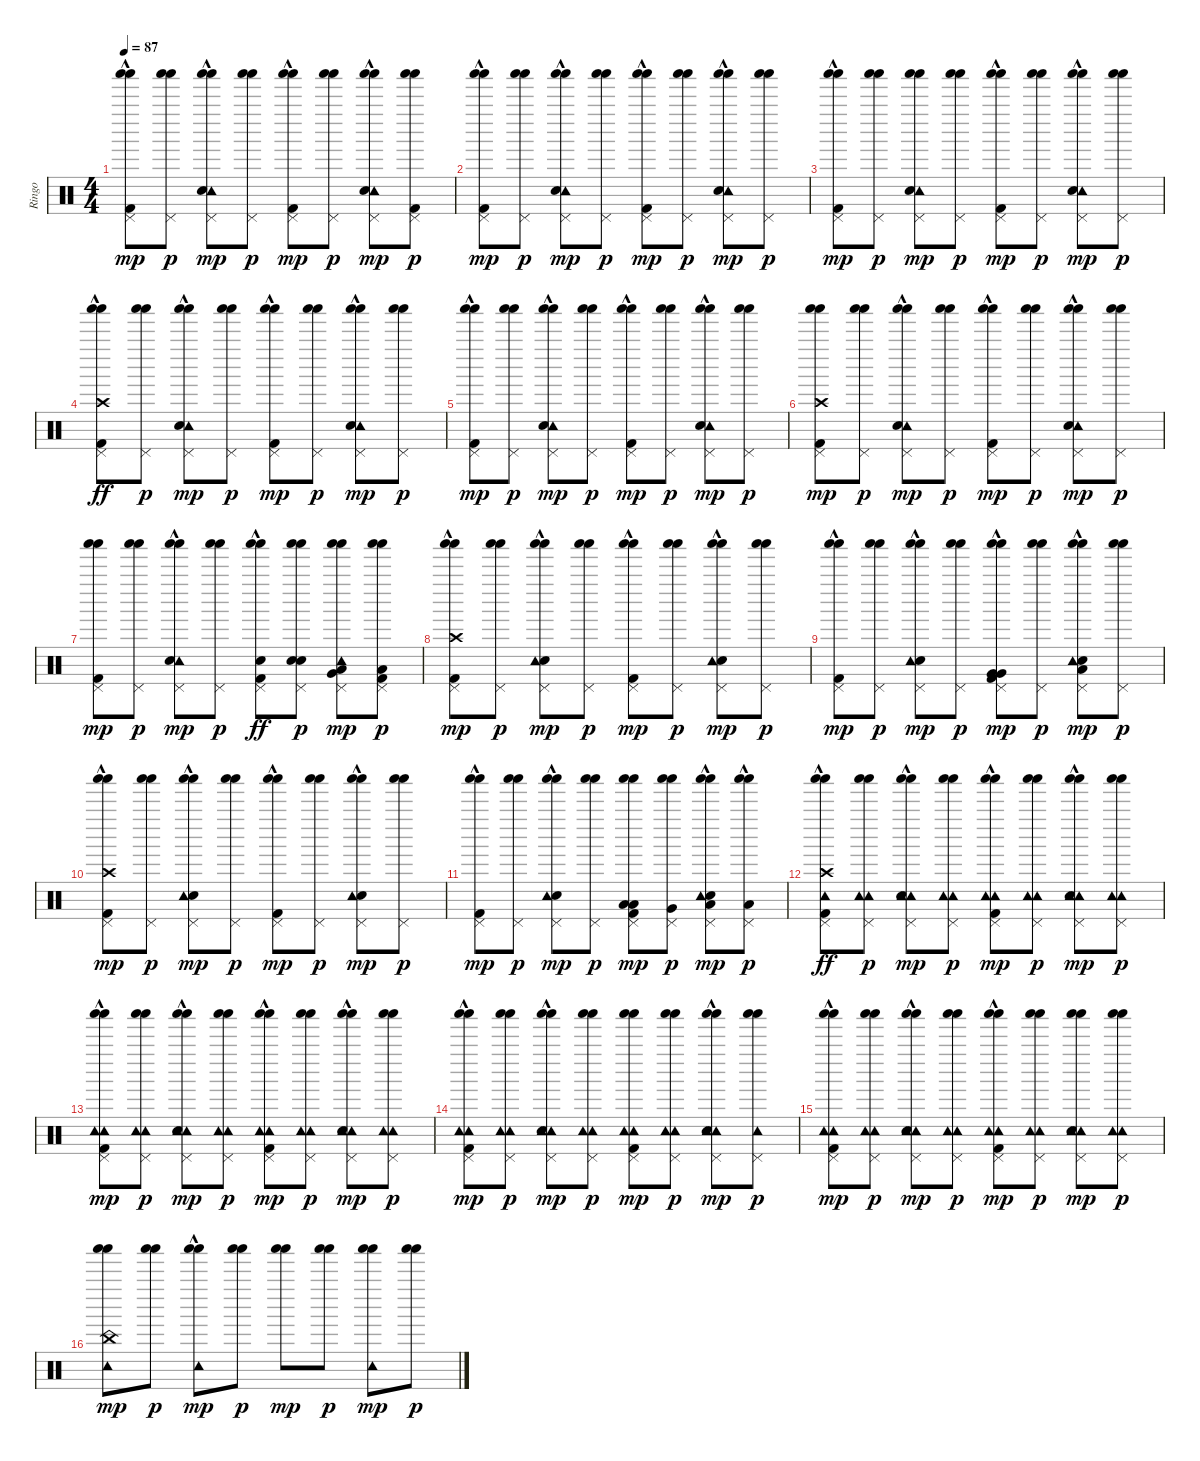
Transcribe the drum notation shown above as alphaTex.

\track ("Ringo" "Ringo") {instrument percussion}
\staff {score}
\articulation defaults
\ts (4 4)
\tempo 87
\clef neutral
\ks c
("Shaker (hit)" "Pedal Hi-Hat (hit)" "Kick (hit) 2"{hac} "Shaker (hit)").8{dy mp} ("Shaker (hit)" "Pedal Hi-Hat (hit)" "Shaker (hit)").8{dy p} ("Shaker (hit)" "Tambourine (hit)" "Pedal Hi-Hat (hit)" "Snare (hit) 2"{hac} "Shaker (hit)").8{dy mp} ("Shaker (hit)" "Pedal Hi-Hat (hit)" "Shaker (hit)").8{dy p} ("Shaker (hit)" "Pedal Hi-Hat (hit)" "Kick (hit) 2"{hac} "Shaker (hit)").8{dy mp} ("Shaker (hit)" "Pedal Hi-Hat (hit)" "Shaker (hit)").8{dy p} ("Shaker (hit)" "Tambourine (hit)" "Pedal Hi-Hat (hit)" "Snare (hit) 2"{hac} "Shaker (hit)").8{dy mp} ("Shaker (hit)" "Pedal Hi-Hat (hit)" "Kick (hit) 2" "Shaker (hit)").8{dy p} |
("Shaker (hit)" "Pedal Hi-Hat (hit)" "Kick (hit) 2"{hac} "Shaker (hit)").8{dy mp} ("Shaker (hit)" "Pedal Hi-Hat (hit)" "Shaker (hit)").8{dy p} ("Shaker (hit)" "Tambourine (hit)" "Pedal Hi-Hat (hit)" "Snare (hit) 2"{hac} "Shaker (hit)").8{dy mp} ("Shaker (hit)" "Pedal Hi-Hat (hit)" "Shaker (hit)").8{dy p} ("Shaker (hit)" "Pedal Hi-Hat (hit)" "Kick (hit) 2"{hac} "Shaker (hit)").8{dy mp} ("Shaker (hit)" "Pedal Hi-Hat (hit)" "Shaker (hit)").8{dy p} ("Shaker (hit)" "Tambourine (hit)" "Pedal Hi-Hat (hit)" "Snare (hit) 2"{hac} "Shaker (hit)").8{dy mp} ("Shaker (hit)" "Pedal Hi-Hat (hit)" "Shaker (hit)").8{dy p} |
("Shaker (hit)" "Pedal Hi-Hat (hit)" "Kick (hit) 2"{hac} "Shaker (hit)").8{dy mp} ("Shaker (hit)" "Pedal Hi-Hat (hit)" "Shaker (hit)").8{dy p} ("Shaker (hit)" "Tambourine (hit)" "Pedal Hi-Hat (hit)" "Snare (hit) 2" "Shaker (hit)").8{dy mp} ("Shaker (hit)" "Pedal Hi-Hat (hit)" "Shaker (hit)").8{dy p} ("Shaker (hit)" "Pedal Hi-Hat (hit)" "Kick (hit) 2"{hac} "Shaker (hit)").8{dy mp} ("Shaker (hit)" "Pedal Hi-Hat (hit)" "Shaker (hit)").8{dy p} ("Shaker (hit)" "Tambourine (hit)" "Pedal Hi-Hat (hit)" "Snare (hit) 2"{hac} "Shaker (hit)").8{dy mp} ("Shaker (hit)" "Pedal Hi-Hat (hit)" "Shaker (hit)").8{dy p} |
("Shaker (hit)" "Pedal Hi-Hat (hit)" "Kick (hit) 2"{hac} "Shaker (hit)" "Crash high (hit)").8{dy ff} ("Shaker (hit)" "Pedal Hi-Hat (hit)" "Shaker (hit)").8{dy p} ("Shaker (hit)" "Tambourine (hit)"{hac} "Pedal Hi-Hat (hit)" "Snare (hit) 2"{hac} "Shaker (hit)").8{dy mp} ("Shaker (hit)" "Pedal Hi-Hat (hit)" "Shaker (hit)").8{dy p} ("Shaker (hit)" "Pedal Hi-Hat (hit)" "Kick (hit) 2"{hac} "Shaker (hit)").8{dy mp} ("Shaker (hit)" "Pedal Hi-Hat (hit)" "Shaker (hit)").8{dy p} ("Shaker (hit)" "Tambourine (hit)" "Pedal Hi-Hat (hit)" "Snare (hit) 2"{hac} "Shaker (hit)").8{dy mp} ("Shaker (hit)" "Pedal Hi-Hat (hit)" "Shaker (hit)").8{dy p} |
("Shaker (hit)" "Pedal Hi-Hat (hit)" "Kick (hit) 2"{hac} "Shaker (hit)").8{dy mp} ("Shaker (hit)" "Pedal Hi-Hat (hit)" "Shaker (hit)").8{dy p} ("Shaker (hit)" "Tambourine (hit)" "Pedal Hi-Hat (hit)" "Snare (hit) 2"{hac} "Shaker (hit)").8{dy mp} ("Shaker (hit)" "Pedal Hi-Hat (hit)" "Shaker (hit)").8{dy p} ("Shaker (hit)" "Pedal Hi-Hat (hit)" "Kick (hit) 2"{hac} "Shaker (hit)").8{dy mp} ("Shaker (hit)" "Pedal Hi-Hat (hit)" "Shaker (hit)").8{dy p} ("Shaker (hit)" "Tambourine (hit)" "Pedal Hi-Hat (hit)" "Snare (hit) 2"{hac} "Shaker (hit)").8{dy mp} ("Shaker (hit)" "Pedal Hi-Hat (hit)" "Shaker (hit)").8{dy p} |
("Shaker (hit)" "Crash high (hit)" "Pedal Hi-Hat (hit)" "Kick (hit) 2" "Shaker (hit)").8{dy mp} ("Shaker (hit)" "Pedal Hi-Hat (hit)" "Shaker (hit)").8{dy p} ("Shaker (hit)" "Tambourine (hit)" "Pedal Hi-Hat (hit)" "Snare (hit) 2"{hac} "Shaker (hit)").8{dy mp} ("Shaker (hit)" "Pedal Hi-Hat (hit)" "Shaker (hit)").8{dy p} ("Shaker (hit)" "Pedal Hi-Hat (hit)" "Kick (hit) 2"{hac} "Shaker (hit)").8{dy mp} ("Shaker (hit)" "Pedal Hi-Hat (hit)" "Shaker (hit)").8{dy p} ("Shaker (hit)" "Tambourine (hit)" "Pedal Hi-Hat (hit)" "Snare (hit) 2"{hac} "Shaker (hit)").8{dy mp} ("Shaker (hit)" "Pedal Hi-Hat (hit)" "Shaker (hit)").8{dy p} |
("Shaker (hit)" "Pedal Hi-Hat (hit)" "Kick (hit) 2" "Shaker (hit)").8{dy mp} ("Shaker (hit)" "Pedal Hi-Hat (hit)" "Shaker (hit)").8{dy p} ("Shaker (hit)" "Tambourine (hit)" "Pedal Hi-Hat (hit)" "Snare (hit) 2"{hac} "Shaker (hit)").8{dy mp} ("Shaker (hit)" "Pedal Hi-Hat (hit)" "Shaker (hit)").8{dy p} ("Shaker (hit)" "Pedal Hi-Hat (hit)" "Kick (hit) 2"{hac} "Shaker (hit)" "Snare (hit) 2").8{dy ff} ("Shaker (hit)" "Snare (hit) 2" "Snare (hit) 2" "Pedal Hi-Hat (hit)" "Shaker (hit)").8{dy p} ("Shaker (hit)" "Low Tom (hit)" "Tambourine (hit)" "Pedal Hi-Hat (hit)" "Shaker (hit)" "Very Low Tom (hit)").8{dy mp} ("Shaker (hit)" "Low Floor Tom (hit)" "Kick (hit) 2" "Pedal Hi-Hat (hit)" "Shaker (hit)").8{dy p} |
("Shaker (hit)" "Crash high (hit)" "Kick (hit) 2"{hac} "Pedal Hi-Hat (hit)" "Shaker (hit)").8{dy mp} ("Shaker (hit)" "Pedal Hi-Hat (hit)" "Shaker (hit)").8{dy p} ("Shaker (hit)" "Snare (hit) 2"{hac} "Pedal Hi-Hat (hit)" "Tambourine (hit)" "Shaker (hit)").8{dy mp} ("Shaker (hit)" "Pedal Hi-Hat (hit)" "Shaker (hit)").8{dy p} ("Shaker (hit)" "Kick (hit) 2"{hac} "Pedal Hi-Hat (hit)" "Shaker (hit)").8{dy mp} ("Shaker (hit)" "Pedal Hi-Hat (hit)" "Shaker (hit)").8{dy p} ("Shaker (hit)" "Snare (hit) 2"{hac} "Pedal Hi-Hat (hit)" "Tambourine (hit)" "Shaker (hit)").8{dy mp} ("Shaker (hit)" "Pedal Hi-Hat (hit)" "Shaker (hit)").8{dy p} |
("Shaker (hit)" "Kick (hit) 2"{hac} "Pedal Hi-Hat (hit)" "Shaker (hit)").8{dy mp} ("Shaker (hit)" "Pedal Hi-Hat (hit)" "Shaker (hit)").8{dy p} ("Shaker (hit)" "Snare (hit) 2"{hac} "Pedal Hi-Hat (hit)" "Tambourine (hit)"{hac} "Shaker (hit)").8{dy mp} ("Shaker (hit)" "Pedal Hi-Hat (hit)" "Shaker (hit)").8{dy p} ("Shaker (hit)" "Very Low Tom (hit)" "Kick (hit) 2"{hac} "Pedal Hi-Hat (hit)" "Shaker (hit)" "Very Low Tom (hit)").8{dy mp} ("Shaker (hit)" "Pedal Hi-Hat (hit)" "Shaker (hit)").8{dy p} ("Shaker (hit)" "Low Floor Tom (hit)" "Snare (hit) 2"{hac} "Pedal Hi-Hat (hit)" "Tambourine (hit)"{hac} "Shaker (hit)").8{dy mp} ("Shaker (hit)" "Pedal Hi-Hat (hit)" "Shaker (hit)").8{dy p} |
("Shaker (hit)" "Crash high (hit)"{hac} "Kick (hit) 2"{hac} "Pedal Hi-Hat (hit)" "Shaker (hit)").8{dy mp} ("Shaker (hit)" "Pedal Hi-Hat (hit)" "Shaker (hit)").8{dy p} ("Shaker (hit)" "Snare (hit) 2"{hac} "Pedal Hi-Hat (hit)" "Tambourine (hit)" "Shaker (hit)").8{dy mp} ("Shaker (hit)" "Pedal Hi-Hat (hit)" "Shaker (hit)").8{dy p} ("Shaker (hit)" "Kick (hit) 2"{hac} "Pedal Hi-Hat (hit)" "Shaker (hit)").8{dy mp} ("Shaker (hit)" "Pedal Hi-Hat (hit)" "Shaker (hit)").8{dy p} ("Shaker (hit)" "Snare (hit) 2"{hac} "Pedal Hi-Hat (hit)" "Tambourine (hit)" "Shaker (hit)").8{dy mp} ("Shaker (hit)" "Pedal Hi-Hat (hit)" "Shaker (hit)").8{dy p} |
("Shaker (hit)" "Kick (hit) 2"{hac} "Pedal Hi-Hat (hit)" "Shaker (hit)").8{dy mp} ("Shaker (hit)" "Pedal Hi-Hat (hit)" "Shaker (hit)").8{dy p} ("Shaker (hit)" "Snare (hit) 2"{hac} "Pedal Hi-Hat (hit)" "Tambourine (hit)" "Shaker (hit)").8{dy mp} ("Shaker (hit)" "Pedal Hi-Hat (hit)" "Shaker (hit)").8{dy p} ("Shaker (hit)" "Low Tom (hit)" "Kick (hit) 2" "Pedal Hi-Hat (hit)" "Shaker (hit)" "Low Tom (hit)").8{dy mp} ("Shaker (hit)" "Pedal Hi-Hat (hit)" "Shaker (hit)" "Very Low Tom (hit)").8{dy p} ("Shaker (hit)" "Low Tom (hit)" "Snare (hit) 2"{hac} "Pedal Hi-Hat (hit)" "Tambourine (hit)"{hac} "Shaker (hit)").8{dy mp} ("Shaker (hit)" "Low Floor Tom (hit)"{hac} "Pedal Hi-Hat (hit)" "Shaker (hit)").8{dy p} |
("Shaker (hit)" "Kick (hit) 2"{hac} "Pedal Hi-Hat (hit)" "Tambourine (hit)" "Shaker (hit)" "Crash high (hit)").8{dy ff} ("Shaker (hit)" "Tambourine (hit)" "Pedal Hi-Hat (hit)" "Tambourine (hit)" "Shaker (hit)").8{dy p} ("Shaker (hit)" "Tambourine (hit)" "Tambourine (hit)" "Snare (hit) 2"{hac} "Pedal Hi-Hat (hit)" "Shaker (hit)").8{dy mp} ("Shaker (hit)" "Tambourine (hit)" "Pedal Hi-Hat (hit)" "Tambourine (hit)" "Shaker (hit)").8{dy p} ("Shaker (hit)" "Tambourine (hit)" "Kick (hit) 2"{hac} "Pedal Hi-Hat (hit)" "Tambourine (hit)" "Shaker (hit)").8{dy mp} ("Shaker (hit)" "Tambourine (hit)" "Pedal Hi-Hat (hit)" "Tambourine (hit)" "Shaker (hit)").8{dy p} ("Shaker (hit)" "Tambourine (hit)" "Tambourine (hit)" "Snare (hit) 2"{hac} "Pedal Hi-Hat (hit)" "Shaker (hit)").8{dy mp} ("Shaker (hit)" "Tambourine (hit)" "Pedal Hi-Hat (hit)" "Tambourine (hit)" "Shaker (hit)").8{dy p} |
("Shaker (hit)" "Tambourine (hit)" "Kick (hit) 2"{hac} "Pedal Hi-Hat (hit)" "Tambourine (hit)" "Shaker (hit)").8{dy mp} ("Shaker (hit)" "Tambourine (hit)" "Pedal Hi-Hat (hit)" "Tambourine (hit)" "Shaker (hit)").8{dy p} ("Shaker (hit)" "Tambourine (hit)" "Tambourine (hit)" "Snare (hit) 2"{hac} "Pedal Hi-Hat (hit)" "Shaker (hit)").8{dy mp} ("Shaker (hit)" "Tambourine (hit)" "Pedal Hi-Hat (hit)" "Tambourine (hit)" "Shaker (hit)").8{dy p} ("Shaker (hit)" "Tambourine (hit)" "Kick (hit) 2"{hac} "Pedal Hi-Hat (hit)" "Tambourine (hit)" "Shaker (hit)").8{dy mp} ("Shaker (hit)" "Tambourine (hit)" "Pedal Hi-Hat (hit)" "Tambourine (hit)" "Shaker (hit)").8{dy p} ("Shaker (hit)" "Tambourine (hit)" "Tambourine (hit)" "Snare (hit) 2"{hac} "Pedal Hi-Hat (hit)" "Shaker (hit)").8{dy mp} ("Shaker (hit)" "Tambourine (hit)" "Pedal Hi-Hat (hit)" "Tambourine (hit)" "Shaker (hit)").8{dy p} |
("Shaker (hit)" "Tambourine (hit)" "Kick (hit) 2"{hac} "Pedal Hi-Hat (hit)" "Tambourine (hit)" "Shaker (hit)").8{dy mp} ("Shaker (hit)" "Tambourine (hit)" "Pedal Hi-Hat (hit)" "Tambourine (hit)" "Shaker (hit)").8{dy p} ("Shaker (hit)" "Tambourine (hit)" "Tambourine (hit)" "Snare (hit) 2"{hac} "Pedal Hi-Hat (hit)" "Shaker (hit)").8{dy mp} ("Shaker (hit)" "Tambourine (hit)" "Pedal Hi-Hat (hit)" "Tambourine (hit)" "Shaker (hit)").8{dy p} ("Shaker (hit)" "Tambourine (hit)" "Kick (hit) 2" "Pedal Hi-Hat (hit)" "Tambourine (hit)" "Shaker (hit)").8{dy mp} ("Shaker (hit)" "Tambourine (hit)" "Pedal Hi-Hat (hit)" "Tambourine (hit)" "Shaker (hit)").8{dy p} ("Shaker (hit)" "Tambourine (hit)" "Tambourine (hit)" "Snare (hit) 2"{hac} "Pedal Hi-Hat (hit)" "Shaker (hit)").8{dy mp} ("Shaker (hit)" "Pedal Hi-Hat (hit)" "Tambourine (hit)" "Shaker (hit)").8{dy p} |
("Shaker (hit)" "Tambourine (hit)" "Kick (hit) 2"{hac} "Pedal Hi-Hat (hit)" "Tambourine (hit)" "Shaker (hit)").8{dy mp} ("Shaker (hit)" "Tambourine (hit)" "Pedal Hi-Hat (hit)" "Tambourine (hit)" "Shaker (hit)").8{dy p} ("Shaker (hit)" "Tambourine (hit)" "Tambourine (hit)" "Snare (hit) 2"{hac} "Pedal Hi-Hat (hit)" "Shaker (hit)").8{dy mp} ("Shaker (hit)" "Tambourine (hit)" "Pedal Hi-Hat (hit)" "Tambourine (hit)" "Shaker (hit)").8{dy p} ("Shaker (hit)" "Tambourine (hit)" "Kick (hit) 2"{hac} "Pedal Hi-Hat (hit)" "Tambourine (hit)" "Shaker (hit)").8{dy mp} ("Shaker (hit)" "Tambourine (hit)" "Pedal Hi-Hat (hit)" "Tambourine (hit)" "Shaker (hit)").8{dy p} ("Shaker (hit)" "Tambourine (hit)" "Tambourine (hit)" "Snare (hit) 2" "Pedal Hi-Hat (hit)" "Shaker (hit)").8{dy mp} ("Shaker (hit)" "Tambourine (hit)" "Pedal Hi-Hat (hit)" "Tambourine (hit)" "Shaker (hit)").8{dy p} |
("Shaker (hit)" "Tambourine (hit)" "China (hit)" "Shaker (hit)").8{dy mp} ("Shaker (hit)" "Shaker (hit)").8{dy p} ("Shaker (hit)" "Tambourine (hit)"{hac} "Shaker (hit)").8{dy mp} ("Shaker (hit)" "Shaker (hit)").8{dy p} ("Shaker (hit)" "Shaker (hit)").8{dy mp} ("Shaker (hit)" "Shaker (hit)").8{dy p} ("Shaker (hit)" "Tambourine (hit)" "Shaker (hit)").8{dy mp} ("Shaker (hit)" "Shaker (hit)").8{dy p}
